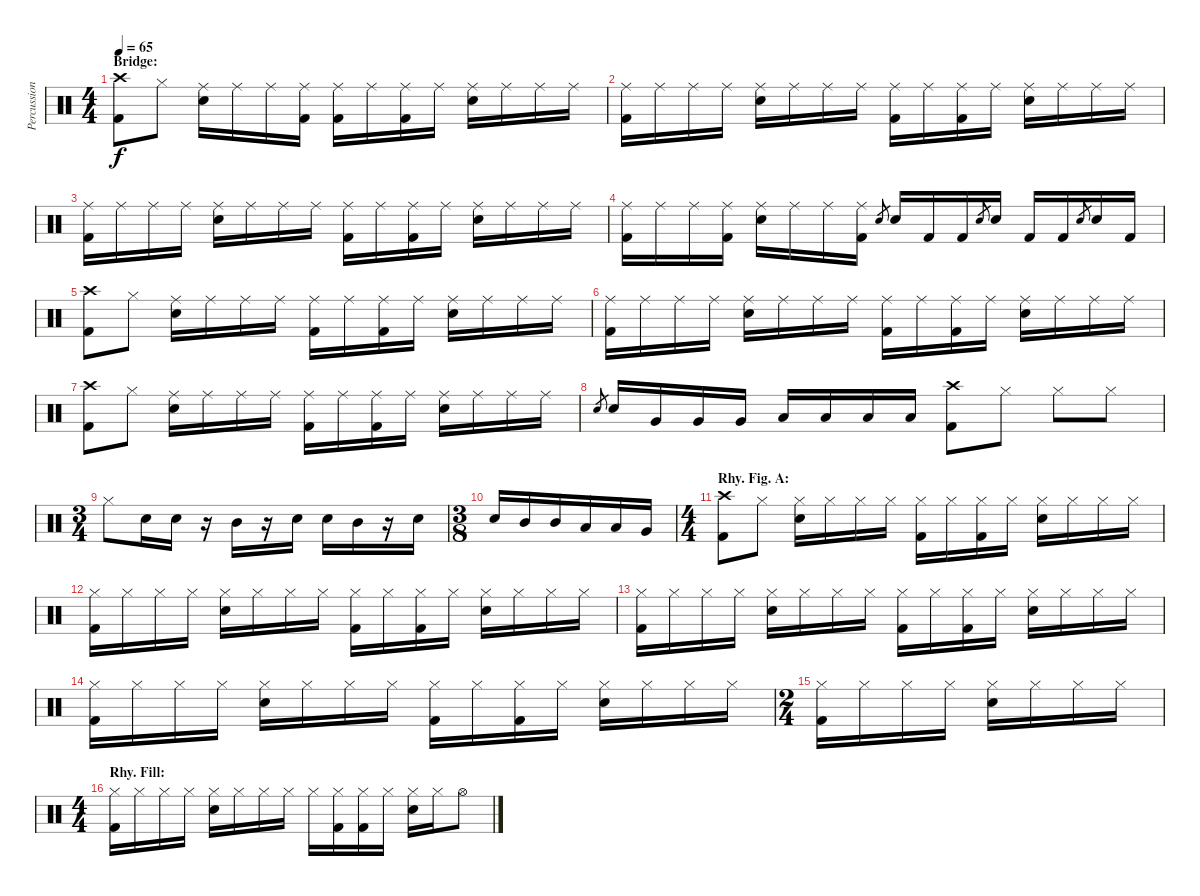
\track ("Percussion" "Percussion") {instrument percussion}
\staff {score}
\articulation defaults
\ts (4 4)
\section ("" "Bridge:")
\tempo 65
\clef neutral
\ks c
("Crash high (hit)" "Kick (hit) 2").8{dy f} "Hi-Hat (closed)".8 ("Ride (middle)" "Electric Snare (hit)").16 "Ride (middle)".16 "Ride (middle)".16 ("Ride (middle)" "Kick (hit) 2").16 ("Ride (middle)" "Kick (hit) 2").16 "Ride (middle)".16 ("Ride (middle)" "Kick (hit) 2").16 "Ride (middle)".16 ("Ride (middle)" "Electric Snare (hit)").16 "Ride (middle)".16 "Ride (middle)".16 "Ride (middle)".16 |
("Ride (middle)" "Kick (hit) 2").16 "Ride (middle)".16 "Ride (middle)".16 "Ride (middle)".16 ("Ride (middle)" "Electric Snare (hit)").16 "Ride (middle)".16 "Ride (middle)".16 "Ride (middle)".16 ("Ride (middle)" "Kick (hit) 2").16 "Ride (middle)".16 ("Ride (middle)" "Kick (hit) 2").16 "Ride (middle)".16 ("Ride (middle)" "Electric Snare (hit)").16 "Ride (middle)".16 "Ride (middle)".16 "Ride (middle)".16 |
("Ride (middle)" "Kick (hit) 2").16 "Ride (middle)".16 "Ride (middle)".16 "Ride (middle)".16 ("Ride (middle)" "Electric Snare (hit)").16 "Ride (middle)".16 "Ride (middle)".16 "Ride (middle)".16 ("Ride (middle)" "Kick (hit) 2").16 "Ride (middle)".16 ("Ride (middle)" "Kick (hit) 2").16 "Ride (middle)".16 ("Ride (middle)" "Electric Snare (hit)").16 "Ride (middle)".16 "Ride (middle)".16 "Ride (middle)".16 |
("Ride (middle)" "Kick (hit) 2").16 "Ride (middle)".16 "Ride (middle)".16 ("Ride (middle)" "Kick (hit) 2").16 ("Ride (middle)" "Electric Snare (hit)").16 "Ride (middle)".16 "Ride (middle)".16 ("Ride (middle)" "Kick (hit) 2").16 "Electric Snare (hit)".8{gr} "Electric Snare (hit)".16 "Kick (hit) 2".16 "Kick (hit) 2".16 "Electric Snare (hit)".8{gr} "Electric Snare (hit)".16 "Kick (hit) 2".16 "Kick (hit) 2".16 "Electric Snare (hit)".8{gr} "Electric Snare (hit)".16 "Kick (hit) 2".16 |
("Crash high (hit)" "Kick (hit) 2").8 "Hi-Hat (closed)".8 ("Ride (middle)" "Electric Snare (hit)").16 "Ride (middle)".16 "Ride (middle)".16 "Ride (middle)".16 ("Ride (middle)" "Kick (hit) 2").16 "Ride (middle)".16 ("Ride (middle)" "Kick (hit) 2").16 "Ride (middle)".16 ("Ride (middle)" "Electric Snare (hit)").16 "Ride (middle)".16 "Ride (middle)".16 "Ride (middle)".16 |
("Ride (middle)" "Kick (hit) 2").16 "Ride (middle)".16 "Ride (middle)".16 "Ride (middle)".16 ("Ride (middle)" "Electric Snare (hit)").16 "Ride (middle)".16 "Ride (middle)".16 "Ride (middle)".16 ("Ride (middle)" "Kick (hit) 2").16 "Ride (middle)".16 ("Ride (middle)" "Kick (hit) 2").16 "Ride (middle)".16 ("Ride (middle)" "Electric Snare (hit)").16 "Ride (middle)".16 "Ride (middle)".16 "Ride (middle)".16 |
("Crash high (hit)" "Kick (hit) 2").8 "Hi-Hat (closed)".8 ("Ride (middle)" "Electric Snare (hit)").16 "Ride (middle)".16 "Ride (middle)".16 "Ride (middle)".16 ("Ride (middle)" "Kick (hit) 2").16 "Ride (middle)".16 ("Ride (middle)" "Kick (hit) 2").16 "Ride (middle)".16 ("Ride (middle)" "Electric Snare (hit)").16 "Ride (middle)".16 "Ride (middle)".16 "Ride (middle)".16 |
"Electric Snare (hit)".8{gr} "Electric Snare (hit)".16 "Very Low Tom (hit)".16 "Very Low Tom (hit)".16 "Very Low Tom (hit)".16 "Low Floor Tom (hit)".16 "Low Floor Tom (hit)".16 "Low Floor Tom (hit)".16 "Low Floor Tom (hit)".16 ("Crash high (hit)" "Kick (hit) 2").8 "Hi-Hat (closed)".8 "Hi-Hat (closed)".8 "Hi-Hat (closed)".8 |
\ts (3 4)
"Hi-Hat (closed)".8 "Electric Snare (hit)".16 "Electric Snare (hit)".16 r.16 "Mid Tom (hit)".16 r.16 "Electric Snare (hit)".16 "Electric Snare (hit)".16 "Mid Tom (hit)".16 r.16 "Electric Snare (hit)".16 |
\ts (3 8)
"Electric Snare (hit)".16 "Mid Tom (hit)".16 "Mid Tom (hit)".16 "Low Tom (hit)".16 "Low Tom (hit)".16 "Very Low Tom (hit)".16 |
\ts (4 4)
\section ("" "Rhy. Fig. A:")
("Crash high (hit)" "Kick (hit) 2").8 "Hi-Hat (closed)".8 ("Hi-Hat (closed)" "Electric Snare (hit)").16 "Hi-Hat (closed)".16 "Hi-Hat (closed)".16 "Hi-Hat (closed)".16 ("Hi-Hat (closed)" "Kick (hit) 2").16 "Hi-Hat (closed)".16 ("Hi-Hat (closed)" "Kick (hit) 2").16 "Hi-Hat (closed)".16 ("Hi-Hat (closed)" "Electric Snare (hit)").16 "Hi-Hat (closed)".16 "Hi-Hat (closed)".16 "Hi-Hat (closed)".16 |
("Hi-Hat (closed)" "Kick (hit) 2").16 "Hi-Hat (closed)".16 "Hi-Hat (closed)".16 "Hi-Hat (closed)".16 ("Hi-Hat (closed)" "Electric Snare (hit)").16 "Hi-Hat (closed)".16 "Hi-Hat (closed)".16 "Hi-Hat (closed)".16 ("Hi-Hat (closed)" "Kick (hit) 2").16 "Hi-Hat (closed)".16 ("Hi-Hat (closed)" "Kick (hit) 2").16 "Hi-Hat (closed)".16 ("Hi-Hat (closed)" "Electric Snare (hit)").16 "Hi-Hat (closed)".16 "Hi-Hat (closed)".16 "Hi-Hat (closed)".16 |
("Hi-Hat (closed)" "Kick (hit) 2").16 "Hi-Hat (closed)".16 "Hi-Hat (closed)".16 "Hi-Hat (closed)".16 ("Hi-Hat (closed)" "Electric Snare (hit)").16 "Hi-Hat (closed)".16 "Hi-Hat (closed)".16 "Hi-Hat (closed)".16 ("Hi-Hat (closed)" "Kick (hit) 2").16 "Hi-Hat (closed)".16 ("Hi-Hat (closed)" "Kick (hit) 2").16 "Hi-Hat (closed)".16 ("Hi-Hat (closed)" "Electric Snare (hit)").16 "Hi-Hat (closed)".16 "Hi-Hat (closed)".16 "Hi-Hat (closed)".16 |
("Hi-Hat (closed)" "Kick (hit) 2").16 "Hi-Hat (closed)".16 "Hi-Hat (closed)".16 "Hi-Hat (closed)".16 ("Hi-Hat (closed)" "Electric Snare (hit)").16 "Hi-Hat (closed)".16 "Hi-Hat (closed)".16 "Hi-Hat (closed)".16 ("Hi-Hat (closed)" "Kick (hit) 2").16 "Hi-Hat (closed)".16 ("Hi-Hat (closed)" "Kick (hit) 2").16 "Hi-Hat (closed)".16 ("Hi-Hat (closed)" "Electric Snare (hit)").16 "Hi-Hat (closed)".16 "Hi-Hat (closed)".16 "Hi-Hat (closed)".16 |
\ts (2 4)
("Hi-Hat (closed)" "Kick (hit) 2").16 "Hi-Hat (closed)".16 "Hi-Hat (closed)".16 "Hi-Hat (closed)".16 ("Hi-Hat (closed)" "Electric Snare (hit)").16 "Hi-Hat (closed)".16 "Hi-Hat (closed)".16 "Hi-Hat (closed)".16 |
\ts (4 4)
\section ("" "Rhy. Fill:")
("Hi-Hat (closed)" "Kick (hit) 2").16 "Hi-Hat (closed)".16 "Hi-Hat (closed)".16 "Hi-Hat (closed)".16 ("Hi-Hat (closed)" "Electric Snare (hit)").16 "Hi-Hat (closed)".16 "Hi-Hat (closed)".16 "Hi-Hat (closed)".16 "Hi-Hat (closed)".16 ("Hi-Hat (closed)" "Kick (hit) 2").16 ("Hi-Hat (closed)" "Kick (hit) 2").16 "Hi-Hat (closed)".16 ("Hi-Hat (closed)" "Electric Snare (hit)").16 "Hi-Hat (closed)".16 "Hi-Hat (open)".8
